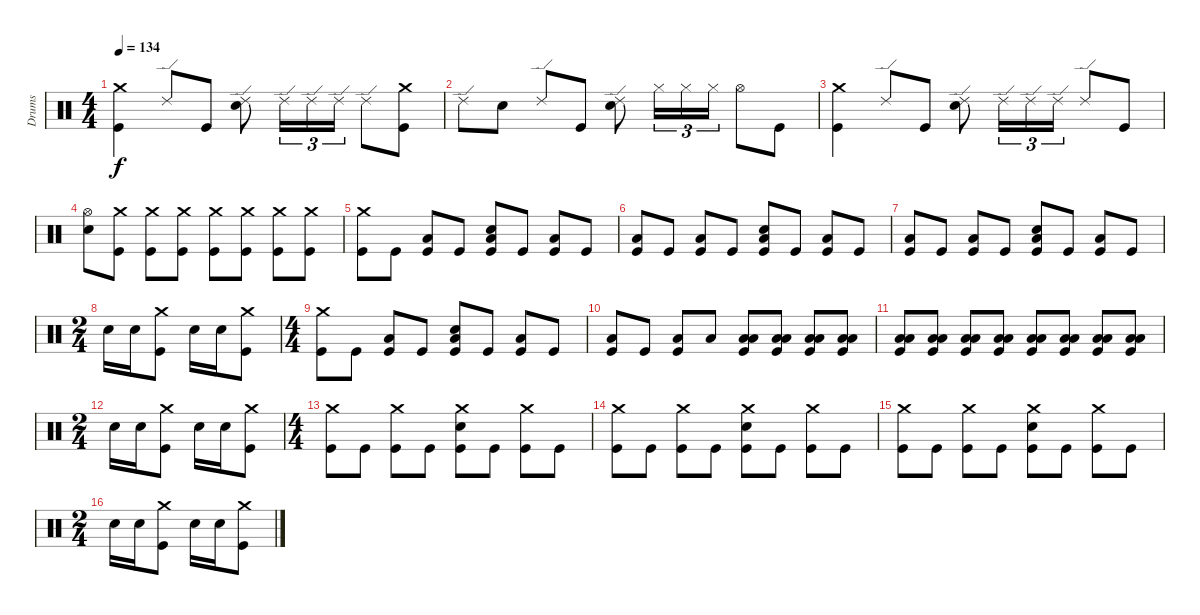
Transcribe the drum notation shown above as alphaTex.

\track ("Drums" "Drums") {instrument percussion}
\staff {score}
\articulation defaults
\ts (4 4)
\tempo 134
\clef neutral
\ks c
("Crash medium (hit)" "Kick (hit)").4{dy f} "Ride (edge) 2".8 "Kick (hit)".8 ("Ride (edge) 2" "Snare (hit) 2").8 "Ride (edge) 2".16{tu (3 2)} "Ride (edge) 2".16{tu (3 2)} "Ride (edge) 2".16{tu (3 2)} "Ride (edge) 2".8 ("Crash medium (hit)" "Kick (hit)").8 |
"Ride (edge) 2".8 "Snare (hit) 2".8 "Ride (edge) 2".8 "Kick (hit)".8 ("Ride (edge) 2" "Snare (hit) 2").8 "Hi-Hat (closed)".16{tu (3 2)} "Hi-Hat (closed)".16{tu (3 2)} "Hi-Hat (closed)".16{tu (3 2)} "Hi-Hat (open)".8 "Kick (hit)".8 |
("Crash medium (hit)" "Kick (hit)").4 "Ride (edge) 2".8 "Kick (hit)".8 ("Ride (edge) 2" "Snare (hit) 2").8 "Ride (edge) 2".16{tu (3 2)} "Ride (edge) 2".16{tu (3 2)} "Ride (edge) 2".16{tu (3 2)} "Ride (edge) 2".8 "Kick (hit)".8 |
("Hi-Hat (open)" "Snare (hit) 2").8 ("Crash medium (hit)" "Kick (hit)").8 ("Crash medium (hit)" "Kick (hit)").8 ("Crash medium (hit)" "Kick (hit)").8 ("Crash medium (hit)" "Kick (hit)").8 ("Crash medium (hit)" "Kick (hit)").8 ("Crash medium (hit)" "Kick (hit)").8 ("Crash medium (hit)" "Kick (hit)").8 |
("Kick (hit)" "Crash medium (hit)").8 "Kick (hit)".8 ("Kick (hit)" "Low Floor Tom (hit)").8 "Kick (hit)".8 ("Snare (hit) 2" "Kick (hit)" "Low Floor Tom (hit)").8 "Kick (hit)".8 ("Kick (hit)" "Low Floor Tom (hit)").8 "Kick (hit)".8 |
("Kick (hit)" "Low Floor Tom (hit)").8 "Kick (hit)".8 ("Kick (hit)" "Low Floor Tom (hit)").8 "Kick (hit)".8 ("Snare (hit) 2" "Kick (hit)" "Low Floor Tom (hit)").8 "Kick (hit)".8 ("Kick (hit)" "Low Floor Tom (hit)").8 "Kick (hit)".8 |
("Kick (hit)" "Low Floor Tom (hit)").8 "Kick (hit)".8 ("Kick (hit)" "Low Floor Tom (hit)").8 "Kick (hit)".8 ("Snare (hit) 2" "Kick (hit)" "Low Floor Tom (hit)").8 "Kick (hit)".8 ("Kick (hit)" "Low Floor Tom (hit)").8 "Kick (hit)".8 |
\ts (2 4)
"Snare (hit) 2".16 "Snare (hit) 2".16 ("Crash medium (hit)" "Kick (hit)").8 "Snare (hit) 2".16 "Snare (hit) 2".16 ("Crash medium (hit)" "Kick (hit)").8 |
\ts (4 4)
("Kick (hit)" "Crash medium (hit)").8 "Kick (hit)".8 ("Kick (hit)" "Low Floor Tom (hit)").8 "Kick (hit)".8 ("Snare (hit) 2" "Kick (hit)" "Low Floor Tom (hit)").8 "Kick (hit)".8 ("Kick (hit)" "Low Floor Tom (hit)").8 "Kick (hit)".8 |
("Kick (hit)" "Low Floor Tom (hit)").8 "Kick (hit)".8 ("Low Floor Tom (hit)" "Kick (hit)").8 "Low Floor Tom (hit)".8 ("Kick (hit)" "Low Tom (hit)" "Low Floor Tom (hit)").8 ("Kick (hit)" "Low Tom (hit)" "Low Floor Tom (hit)").8 ("Kick (hit)" "Low Tom (hit)" "Low Floor Tom (hit)").8 ("Kick (hit)" "Low Tom (hit)" "Low Floor Tom (hit)").8 |
("Kick (hit)" "Low Tom (hit)" "Low Floor Tom (hit)").8 ("Kick (hit)" "Low Tom (hit)" "Low Floor Tom (hit)").8 ("Kick (hit)" "Low Tom (hit)" "Low Floor Tom (hit)").8 ("Kick (hit)" "Low Tom (hit)" "Low Floor Tom (hit)").8 ("Kick (hit)" "Low Tom (hit)" "Low Floor Tom (hit)").8 ("Kick (hit)" "Low Tom (hit)" "Low Floor Tom (hit)").8 ("Kick (hit)" "Low Tom (hit)" "Low Floor Tom (hit)").8 ("Kick (hit)" "Low Tom (hit)" "Low Floor Tom (hit)").8 |
\ts (2 4)
"Snare (hit) 2".16 "Snare (hit) 2".16 ("Crash medium (hit)" "Kick (hit)").8 "Snare (hit) 2".16 "Snare (hit) 2".16 ("Crash medium (hit)" "Kick (hit)").8 |
\ts (4 4)
("Crash medium (hit)" "Kick (hit)").8 "Kick (hit)".8 ("Crash medium (hit)" "Kick (hit)").8 "Kick (hit)".8 ("Crash medium (hit)" "Snare (hit) 2" "Kick (hit)").8 "Kick (hit)".8 ("Crash medium (hit)" "Kick (hit)").8 "Kick (hit)".8 |
("Crash medium (hit)" "Kick (hit)").8 "Kick (hit)".8 ("Crash medium (hit)" "Kick (hit)").8 "Kick (hit)".8 ("Crash medium (hit)" "Snare (hit) 2" "Kick (hit)").8 "Kick (hit)".8 ("Crash medium (hit)" "Kick (hit)").8 "Kick (hit)".8 |
("Crash medium (hit)" "Kick (hit)").8 "Kick (hit)".8 ("Crash medium (hit)" "Kick (hit)").8 "Kick (hit)".8 ("Crash medium (hit)" "Snare (hit) 2" "Kick (hit)").8 "Kick (hit)".8 ("Crash medium (hit)" "Kick (hit)").8 "Kick (hit)".8 |
\ts (2 4)
"Snare (hit) 2".16 "Snare (hit) 2".16 ("Crash medium (hit)" "Kick (hit)").8 "Snare (hit) 2".16 "Snare (hit) 2".16 ("Crash medium (hit)" "Kick (hit)").8
